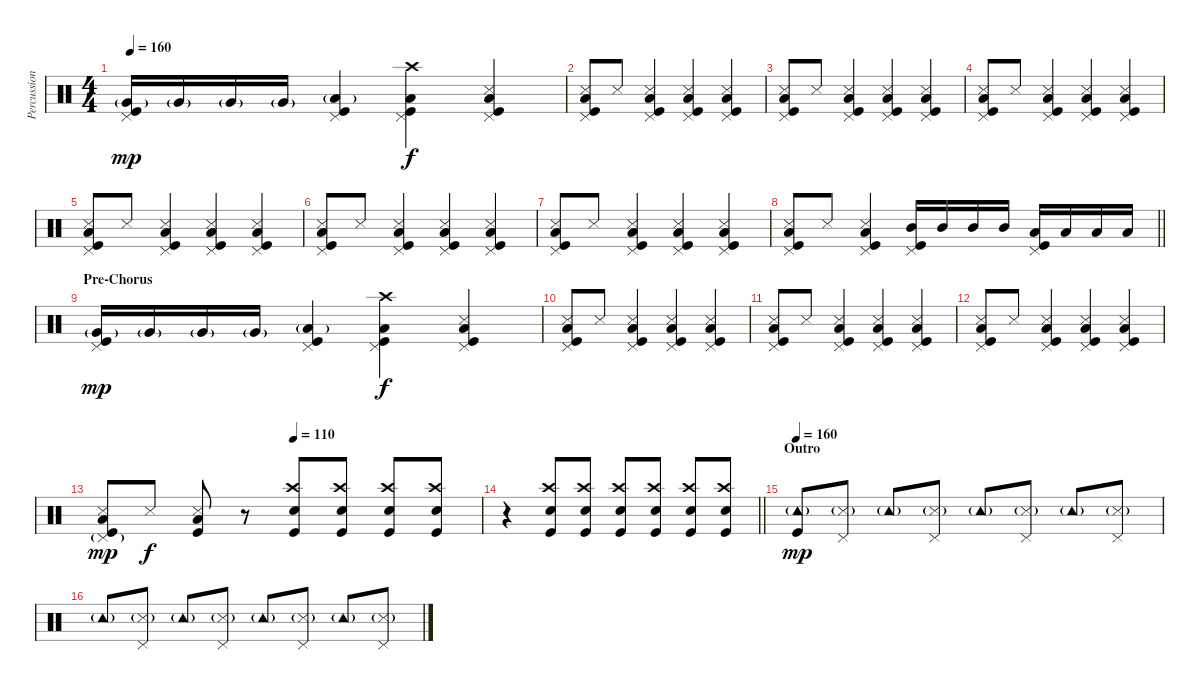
\track ("Percussion" "Percussion") {instrument percussion}
\staff {score}
\articulation defaults
\ts (4 4)
\tempo 160
\clef neutral
\ks c
("Very Low Tom (hit)"{g} "Kick (hit)" "Pedal Hi-Hat (hit)").16{dy mp} "Very Low Tom (hit)"{g}.16 "Very Low Tom (hit)"{g}.16 "Very Low Tom (hit)"{g}.16 ("Low Floor Tom (hit)"{g} "Kick (hit)" "Pedal Hi-Hat (hit)").4 ("Crash high (hit)" "Low Floor Tom (hit)" "Kick (hit)" "Pedal Hi-Hat (hit)").4{dy f} ("Snare (side stick) 3" "Low Floor Tom (hit)" "Kick (hit)" "Pedal Hi-Hat (hit)").4 |
("Snare (side stick) 3" "Low Floor Tom (hit)" "Kick (hit)" "Pedal Hi-Hat (hit)").8 "Snare (side stick) 3".8 ("Snare (side stick) 3" "Low Floor Tom (hit)" "Kick (hit)" "Pedal Hi-Hat (hit)").4 ("Snare (side stick) 3" "Low Floor Tom (hit)" "Kick (hit)" "Pedal Hi-Hat (hit)").4 ("Snare (side stick) 3" "Low Floor Tom (hit)" "Kick (hit)" "Pedal Hi-Hat (hit)").4 |
("Snare (side stick) 3" "Low Floor Tom (hit)" "Kick (hit)" "Pedal Hi-Hat (hit)").8 "Snare (side stick) 3".8 ("Snare (side stick) 3" "Low Floor Tom (hit)" "Kick (hit)" "Pedal Hi-Hat (hit)").4 ("Snare (side stick) 3" "Low Floor Tom (hit)" "Kick (hit)" "Pedal Hi-Hat (hit)").4 ("Snare (side stick) 3" "Low Floor Tom (hit)" "Kick (hit)" "Pedal Hi-Hat (hit)").4 |
("Snare (side stick) 3" "Low Floor Tom (hit)" "Kick (hit)" "Pedal Hi-Hat (hit)").8 "Snare (side stick) 3".8 ("Snare (side stick) 3" "Low Floor Tom (hit)" "Kick (hit)" "Pedal Hi-Hat (hit)").4 ("Snare (side stick) 3" "Low Floor Tom (hit)" "Kick (hit)" "Pedal Hi-Hat (hit)").4 ("Snare (side stick) 3" "Low Floor Tom (hit)" "Kick (hit)" "Pedal Hi-Hat (hit)").4 |
("Snare (side stick) 3" "Low Floor Tom (hit)" "Kick (hit)" "Pedal Hi-Hat (hit)").8 "Snare (side stick) 3".8 ("Snare (side stick) 3" "Low Floor Tom (hit)" "Kick (hit)" "Pedal Hi-Hat (hit)").4 ("Snare (side stick) 3" "Low Floor Tom (hit)" "Kick (hit)" "Pedal Hi-Hat (hit)").4 ("Snare (side stick) 3" "Low Floor Tom (hit)" "Kick (hit)" "Pedal Hi-Hat (hit)").4 |
("Snare (side stick) 3" "Low Floor Tom (hit)" "Kick (hit)" "Pedal Hi-Hat (hit)").8 "Snare (side stick) 3".8 ("Snare (side stick) 3" "Low Floor Tom (hit)" "Kick (hit)" "Pedal Hi-Hat (hit)").4 ("Snare (side stick) 3" "Low Floor Tom (hit)" "Kick (hit)" "Pedal Hi-Hat (hit)").4 ("Snare (side stick) 3" "Low Floor Tom (hit)" "Kick (hit)" "Pedal Hi-Hat (hit)").4 |
("Snare (side stick) 3" "Low Floor Tom (hit)" "Kick (hit)" "Pedal Hi-Hat (hit)").8 "Snare (side stick) 3".8 ("Snare (side stick) 3" "Low Floor Tom (hit)" "Kick (hit)" "Pedal Hi-Hat (hit)").4 ("Snare (side stick) 3" "Low Floor Tom (hit)" "Kick (hit)" "Pedal Hi-Hat (hit)").4 ("Snare (side stick) 3" "Low Floor Tom (hit)" "Kick (hit)" "Pedal Hi-Hat (hit)").4 |
\barLineRight lightlight
("Snare (side stick) 3" "Low Floor Tom (hit)" "Kick (hit)" "Pedal Hi-Hat (hit)").8 "Snare (side stick) 3".8 ("Snare (side stick) 3" "Low Floor Tom (hit)" "Kick (hit)" "Pedal Hi-Hat (hit)").4 ("Mid Tom (hit)" "Kick (hit)" "Pedal Hi-Hat (hit)").16 "Mid Tom (hit)".16 "Mid Tom (hit)".16 "Mid Tom (hit)".16 ("Low Tom (hit)" "Kick (hit)" "Pedal Hi-Hat (hit)").16 "Low Tom (hit)".16 "Low Tom (hit)".16 "Low Tom (hit)".16 |
\section ("" "Pre-Chorus")
("Very Low Tom (hit)"{g} "Kick (hit)" "Pedal Hi-Hat (hit)").16{dy mp} "Very Low Tom (hit)"{g}.16 "Very Low Tom (hit)"{g}.16 "Very Low Tom (hit)"{g}.16 ("Low Floor Tom (hit)"{g} "Kick (hit)" "Pedal Hi-Hat (hit)").4 ("Crash high (hit)" "Low Floor Tom (hit)" "Kick (hit)" "Pedal Hi-Hat (hit)").4{dy f} ("Snare (side stick) 3" "Low Floor Tom (hit)" "Kick (hit)" "Pedal Hi-Hat (hit)").4 |
("Snare (side stick) 3" "Low Floor Tom (hit)" "Kick (hit)" "Pedal Hi-Hat (hit)").8 "Snare (side stick) 3".8 ("Snare (side stick) 3" "Low Floor Tom (hit)" "Kick (hit)" "Pedal Hi-Hat (hit)").4 ("Snare (side stick) 3" "Low Floor Tom (hit)" "Kick (hit)" "Pedal Hi-Hat (hit)").4 ("Snare (side stick) 3" "Low Floor Tom (hit)" "Kick (hit)" "Pedal Hi-Hat (hit)").4 |
("Snare (side stick) 3" "Low Floor Tom (hit)" "Kick (hit)" "Pedal Hi-Hat (hit)").8 "Snare (side stick) 3".8 ("Snare (side stick) 3" "Low Floor Tom (hit)" "Kick (hit)" "Pedal Hi-Hat (hit)").4 ("Snare (side stick) 3" "Low Floor Tom (hit)" "Kick (hit)" "Pedal Hi-Hat (hit)").4 ("Snare (side stick) 3" "Low Floor Tom (hit)" "Kick (hit)" "Pedal Hi-Hat (hit)").4 |
("Snare (side stick) 3" "Low Floor Tom (hit)" "Kick (hit)" "Pedal Hi-Hat (hit)").8 "Snare (side stick) 3".8 ("Snare (side stick) 3" "Low Floor Tom (hit)" "Kick (hit)" "Pedal Hi-Hat (hit)").4 ("Snare (side stick) 3" "Low Floor Tom (hit)" "Kick (hit)" "Pedal Hi-Hat (hit)").4 ("Snare (side stick) 3" "Low Floor Tom (hit)" "Kick (hit)" "Pedal Hi-Hat (hit)").4 |
\tempo (110 0.5)
("Snare (side stick) 3" "Low Floor Tom (hit)" "Kick (hit)" "Pedal Hi-Hat (hit)"{g}).8{dy mp} "Snare (side stick) 3".8{dy f} ("Snare (side stick) 3" "Low Floor Tom (hit)" "Kick (hit)").8 r.8 ("Crash high (hit)" "Snare (hit) 2" "Kick (hit)").8 ("Crash high (hit)" "Snare (hit) 2" "Kick (hit)").8 ("Crash high (hit)" "Snare (hit) 2" "Kick (hit)").8 ("Crash high (hit)" "Snare (hit) 2" "Kick (hit)").8 |
\barLineRight lightlight
r.4 ("Crash high (hit)" "Snare (hit) 2" "Kick (hit)").8 ("Crash high (hit)" "Snare (hit) 2" "Kick (hit)").8 ("Crash high (hit)" "Snare (hit) 2" "Kick (hit)").8 ("Crash high (hit)" "Snare (hit) 2" "Kick (hit)").8 ("Crash high (hit)" "Snare (hit) 2" "Kick (hit)").8 ("Crash high (hit)" "Snare (hit) 2" "Kick (hit)").8 |
\section ("" "Outro")
\tempo 160
("Tambourine (hit)"{g} "Kick (hit)").8{dy mp} ("Snare (side stick) 3"{g} "Pedal Hi-Hat (hit)").8 "Tambourine (hit)"{g}.8 ("Snare (side stick) 3"{g} "Pedal Hi-Hat (hit)").8 "Tambourine (hit)"{g}.8 ("Snare (side stick) 3"{g} "Pedal Hi-Hat (hit)").8 "Tambourine (hit)"{g}.8 ("Snare (side stick) 3"{g} "Pedal Hi-Hat (hit)").8 |
"Tambourine (hit)"{g}.8 ("Snare (side stick) 3"{g} "Pedal Hi-Hat (hit)").8 "Tambourine (hit)"{g}.8 ("Snare (side stick) 3"{g} "Pedal Hi-Hat (hit)").8 "Tambourine (hit)"{g}.8 ("Snare (side stick) 3"{g} "Pedal Hi-Hat (hit)").8 "Tambourine (hit)"{g}.8 ("Snare (side stick) 3"{g} "Pedal Hi-Hat (hit)").8
